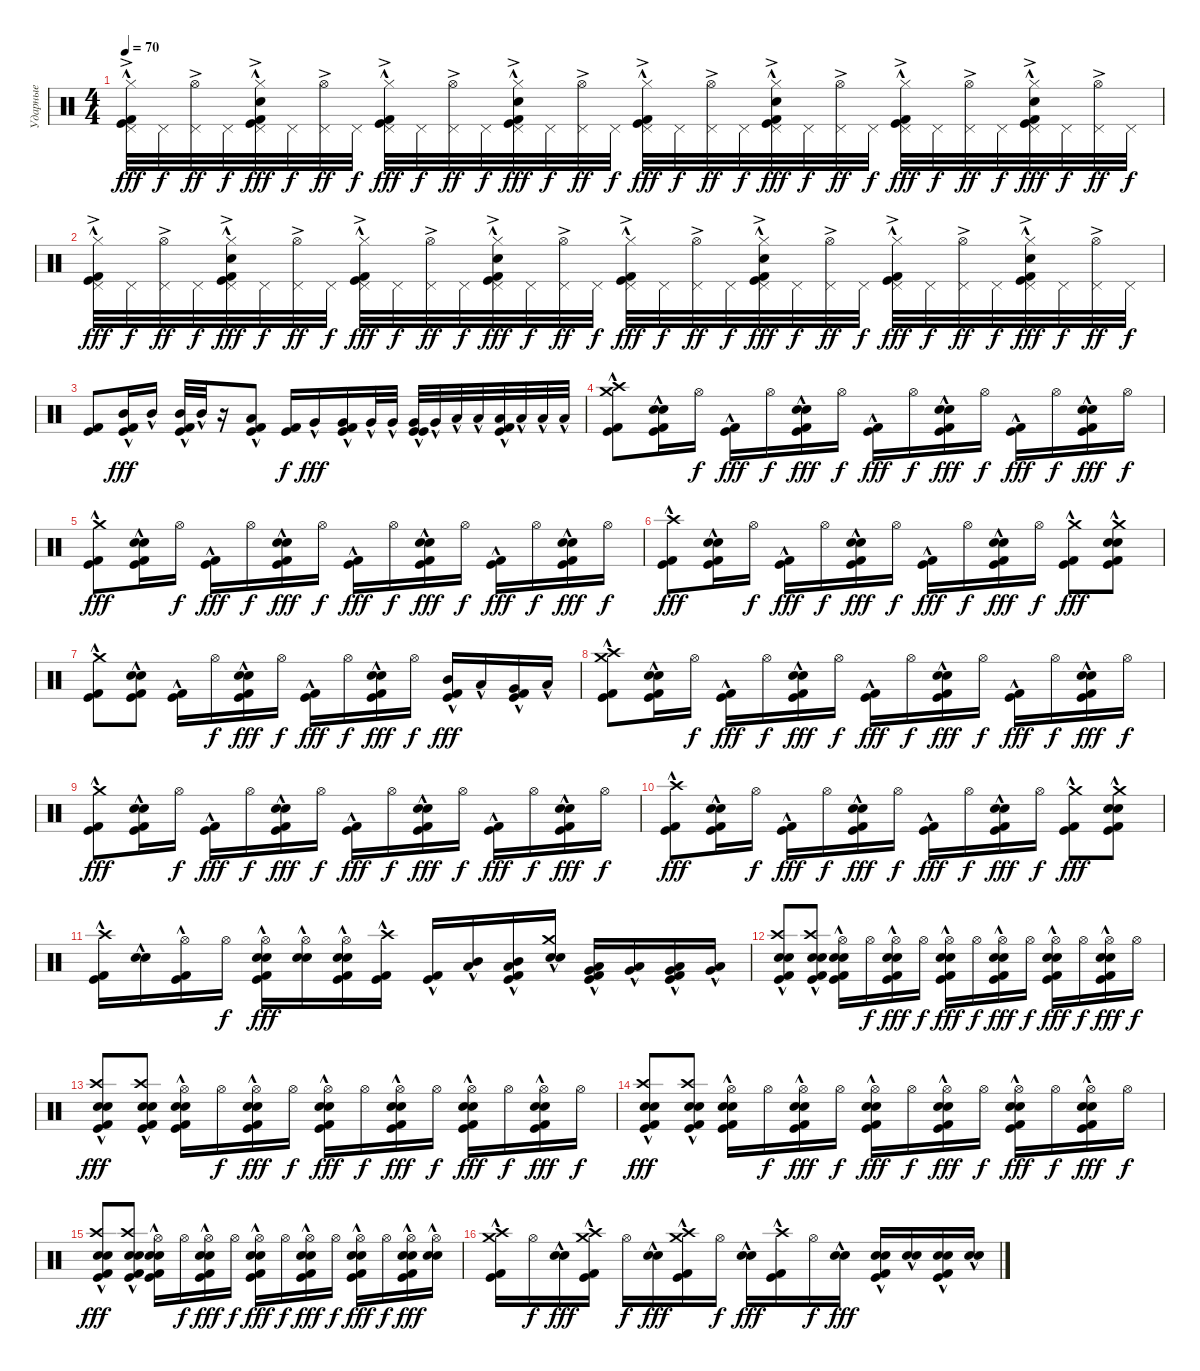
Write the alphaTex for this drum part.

\track ("Ударные" "Ударные") {instrument percussion}
\staff {score}
\articulation defaults
\ts (4 4)
\tempo 70
\clef neutral
\ks c
("Pedal Hi-Hat (hit)" "Kick (hit) 2"{hac} "Hi-Hat (closed)"{ac} "Kick (hit)"{hac}).32{dy fff} "Pedal Hi-Hat (hit)".32{dy f} ("Pedal Hi-Hat (hit)" "Hi-Hat (open)"{ac}).32{dy ff} "Pedal Hi-Hat (hit)".32{dy f} ("Pedal Hi-Hat (hit)" "Kick (hit) 2"{hac} "Hi-Hat (closed)"{ac} "Electric Snare (hit)"{hac} "Kick (hit)"{hac}).32{dy fff} "Pedal Hi-Hat (hit)".32{dy f} ("Pedal Hi-Hat (hit)" "Hi-Hat (open)"{ac}).32{dy ff} "Pedal Hi-Hat (hit)".32{dy f} ("Pedal Hi-Hat (hit)" "Kick (hit) 2"{hac} "Hi-Hat (closed)"{ac} "Kick (hit)"{hac}).32{dy fff} "Pedal Hi-Hat (hit)".32{dy f} ("Pedal Hi-Hat (hit)" "Hi-Hat (open)"{ac}).32{dy ff} "Pedal Hi-Hat (hit)".32{dy f} ("Pedal Hi-Hat (hit)" "Kick (hit) 2"{hac} "Hi-Hat (closed)"{ac} "Electric Snare (hit)"{hac} "Kick (hit)"{hac}).32{dy fff} "Pedal Hi-Hat (hit)".32{dy f} ("Pedal Hi-Hat (hit)" "Hi-Hat (open)"{ac}).32{dy ff} "Pedal Hi-Hat (hit)".32{dy f} ("Pedal Hi-Hat (hit)" "Kick (hit) 2"{hac} "Hi-Hat (closed)"{ac} "Kick (hit)"{hac}).32{dy fff} "Pedal Hi-Hat (hit)".32{dy f} ("Pedal Hi-Hat (hit)" "Hi-Hat (open)"{ac}).32{dy ff} "Pedal Hi-Hat (hit)".32{dy f} ("Pedal Hi-Hat (hit)" "Kick (hit) 2"{hac} "Hi-Hat (closed)"{ac} "Electric Snare (hit)"{hac} "Kick (hit)"{hac}).32{dy fff} "Pedal Hi-Hat (hit)".32{dy f} ("Pedal Hi-Hat (hit)" "Hi-Hat (open)"{ac}).32{dy ff} "Pedal Hi-Hat (hit)".32{dy f} ("Pedal Hi-Hat (hit)" "Kick (hit) 2"{hac} "Hi-Hat (closed)"{ac} "Kick (hit)"{hac}).32{dy fff} "Pedal Hi-Hat (hit)".32{dy f} ("Pedal Hi-Hat (hit)" "Hi-Hat (open)"{ac}).32{dy ff} "Pedal Hi-Hat (hit)".32{dy f} ("Pedal Hi-Hat (hit)" "Kick (hit) 2"{hac} "Hi-Hat (closed)"{ac} "Electric Snare (hit)"{hac} "Kick (hit)"{hac}).32{dy fff} "Pedal Hi-Hat (hit)".32{dy f} ("Pedal Hi-Hat (hit)" "Hi-Hat (open)"{ac}).32{dy ff} "Pedal Hi-Hat (hit)".32{dy f} |
("Pedal Hi-Hat (hit)" "Kick (hit) 2"{hac} "Hi-Hat (closed)"{ac} "Kick (hit)"{hac}).32{dy fff} "Pedal Hi-Hat (hit)".32{dy f} ("Pedal Hi-Hat (hit)" "Hi-Hat (open)"{ac}).32{dy ff} "Pedal Hi-Hat (hit)".32{dy f} ("Pedal Hi-Hat (hit)" "Kick (hit) 2"{hac} "Hi-Hat (closed)"{ac} "Electric Snare (hit)"{hac} "Kick (hit)"{hac}).32{dy fff} "Pedal Hi-Hat (hit)".32{dy f} ("Pedal Hi-Hat (hit)" "Hi-Hat (open)"{ac}).32{dy ff} "Pedal Hi-Hat (hit)".32{dy f} ("Pedal Hi-Hat (hit)" "Kick (hit) 2"{hac} "Hi-Hat (closed)"{ac} "Kick (hit)"{hac}).32{dy fff} "Pedal Hi-Hat (hit)".32{dy f} ("Pedal Hi-Hat (hit)" "Hi-Hat (open)"{ac}).32{dy ff} "Pedal Hi-Hat (hit)".32{dy f} ("Pedal Hi-Hat (hit)" "Kick (hit) 2"{hac} "Hi-Hat (closed)"{ac} "Electric Snare (hit)"{hac} "Kick (hit)"{hac}).32{dy fff} "Pedal Hi-Hat (hit)".32{dy f} ("Pedal Hi-Hat (hit)" "Hi-Hat (open)"{ac}).32{dy ff} "Pedal Hi-Hat (hit)".32{dy f} ("Pedal Hi-Hat (hit)" "Kick (hit) 2"{hac} "Hi-Hat (closed)"{ac} "Kick (hit)"{hac}).32{dy fff} "Pedal Hi-Hat (hit)".32{dy f} ("Pedal Hi-Hat (hit)" "Hi-Hat (open)"{ac}).32{dy ff} "Pedal Hi-Hat (hit)".32{dy f} ("Pedal Hi-Hat (hit)" "Kick (hit) 2"{hac} "Hi-Hat (closed)"{ac} "Electric Snare (hit)"{hac} "Kick (hit)"{hac}).32{dy fff} "Pedal Hi-Hat (hit)".32{dy f} ("Pedal Hi-Hat (hit)" "Hi-Hat (open)"{ac}).32{dy ff} "Pedal Hi-Hat (hit)".32{dy f} ("Pedal Hi-Hat (hit)" "Kick (hit) 2"{hac} "Hi-Hat (closed)"{ac} "Kick (hit)"{hac}).32{dy fff} "Pedal Hi-Hat (hit)".32{dy f} ("Pedal Hi-Hat (hit)" "Hi-Hat (open)"{ac}).32{dy ff} "Pedal Hi-Hat (hit)".32{dy f} ("Pedal Hi-Hat (hit)" "Kick (hit) 2"{hac} "Hi-Hat (closed)"{ac} "Electric Snare (hit)"{hac} "Kick (hit)"{hac}).32{dy fff} "Pedal Hi-Hat (hit)".32{dy f} ("Pedal Hi-Hat (hit)" "Hi-Hat (open)"{ac}).32{dy ff} "Pedal Hi-Hat (hit)".32{dy f} |
("Kick (hit)" "Kick (hit) 2").8 ("Kick (hit)" "Kick (hit) 2" "Mid Tom (hit)"{hac}).16{dy fff} "Mid Tom (hit)"{hac}.16 ("Kick (hit)" "Kick (hit) 2" "Mid Tom (hit)"{hac}).32 "Mid Tom (hit)"{hac}.32 r.16 ("Kick (hit)" "Kick (hit) 2" "Low Tom (hit)"{hac}).8 ("Kick (hit)" "Kick (hit) 2").16{dy f} "Very Low Tom (hit)"{hac}.16{dy fff} ("Kick (hit)" "Kick (hit) 2" "Very Low Tom (hit)"{hac}).16 "Very Low Tom (hit)"{hac}.32 "Very Low Tom (hit)"{hac}.32 ("Kick (hit)" "Kick (hit)" "Very Low Tom (hit)"{hac}).32 "Very Low Tom (hit)"{hac}.32 "Low Floor Tom (hit)"{hac}.32 "Low Floor Tom (hit)"{hac}.32 ("Kick (hit) 2" "Kick (hit)" "Low Floor Tom (hit)"{hac}).32 "Low Floor Tom (hit)"{hac}.32 "Low Floor Tom (hit)"{hac}.32 "Low Floor Tom (hit)"{hac}.32 |
("Crash high (hit)"{hac} "Kick (hit)"{hac} "Kick (hit) 2"{hac} "Crash medium (hit)"{hac}).8 ("Snare (hit) 2"{hac} "Electric Snare (hit)"{hac} "Kick (hit)"{hac} "Kick (hit) 2"{hac}).16 "Hi-Hat (open)".16{dy f} ("Kick (hit)"{hac} "Kick (hit) 2"{hac}).16{dy fff} "Hi-Hat (open)".16{dy f} ("Snare (hit) 2"{hac} "Electric Snare (hit)"{hac} "Kick (hit)"{hac} "Kick (hit) 2"{hac}).16{dy fff} "Hi-Hat (open)".16{dy f} ("Kick (hit)"{hac} "Kick (hit) 2"{hac}).16{dy fff} "Hi-Hat (open)".16{dy f} ("Snare (hit) 2"{hac} "Electric Snare (hit)"{hac} "Kick (hit)"{hac} "Kick (hit) 2"{hac}).16{dy fff} "Hi-Hat (open)".16{dy f} ("Kick (hit)"{hac} "Kick (hit) 2"{hac}).16{dy fff} "Hi-Hat (open)".16{dy f} ("Snare (hit) 2"{hac} "Electric Snare (hit)"{hac} "Kick (hit)"{hac} "Kick (hit) 2"{hac}).16{dy fff} "Hi-Hat (open)".16{dy f} |
("Crash medium (hit)"{hac} "Kick (hit)"{hac} "Kick (hit) 2"{hac}).8{dy fff} ("Snare (hit) 2"{hac} "Electric Snare (hit)"{hac} "Kick (hit)"{hac} "Kick (hit) 2"{hac}).16 "Hi-Hat (open)".16{dy f} ("Kick (hit)"{hac} "Kick (hit) 2"{hac}).16{dy fff} "Hi-Hat (open)".16{dy f} ("Snare (hit) 2"{hac} "Electric Snare (hit)"{hac} "Kick (hit)"{hac} "Kick (hit) 2"{hac}).16{dy fff} "Hi-Hat (open)".16{dy f} ("Kick (hit)"{hac} "Kick (hit) 2"{hac}).16{dy fff} "Hi-Hat (open)".16{dy f} ("Snare (hit) 2"{hac} "Electric Snare (hit)"{hac} "Kick (hit)"{hac} "Kick (hit) 2"{hac}).16{dy fff} "Hi-Hat (open)".16{dy f} ("Kick (hit)"{hac} "Kick (hit) 2"{hac}).16{dy fff} "Hi-Hat (open)".16{dy f} ("Snare (hit) 2"{hac} "Electric Snare (hit)"{hac} "Kick (hit)"{hac} "Kick (hit) 2"{hac}).16{dy fff} "Hi-Hat (open)".16{dy f} |
("Crash high (hit)"{hac} "Kick (hit)"{hac} "Kick (hit) 2"{hac}).8{dy fff} ("Snare (hit) 2"{hac} "Electric Snare (hit)"{hac} "Kick (hit)"{hac} "Kick (hit) 2"{hac}).16 "Hi-Hat (open)".16{dy f} ("Kick (hit)"{hac} "Kick (hit) 2"{hac}).16{dy fff} "Hi-Hat (open)".16{dy f} ("Snare (hit) 2"{hac} "Electric Snare (hit)"{hac} "Kick (hit)"{hac} "Kick (hit) 2"{hac}).16{dy fff} "Hi-Hat (open)".16{dy f} ("Kick (hit)"{hac} "Kick (hit) 2"{hac}).16{dy fff} "Hi-Hat (open)".16{dy f} ("Snare (hit) 2"{hac} "Electric Snare (hit)"{hac} "Kick (hit)"{hac} "Kick (hit) 2"{hac}).16{dy fff} "Hi-Hat (open)".16{dy f} ("Crash medium (hit)"{hac} "Kick (hit)"{hac} "Kick (hit) 2"{hac}).8{dy fff} ("Crash medium (hit)"{hac} "Snare (hit) 2"{hac} "Electric Snare (hit)"{hac} "Kick (hit)"{hac} "Kick (hit) 2"{hac}).8 |
("Crash medium (hit)"{hac} "Kick (hit)"{hac} "Kick (hit) 2"{hac}).8 ("Snare (hit) 2"{hac} "Electric Snare (hit)"{hac} "Kick (hit)"{hac} "Kick (hit) 2"{hac}).8 ("Kick (hit)"{hac} "Kick (hit) 2"{hac}).16 "Hi-Hat (open)".16{dy f} ("Snare (hit) 2"{hac} "Electric Snare (hit)"{hac} "Kick (hit)"{hac} "Kick (hit) 2"{hac}).16{dy fff} "Hi-Hat (open)".16{dy f} ("Kick (hit)"{hac} "Kick (hit) 2"{hac}).16{dy fff} "Hi-Hat (open)".16{dy f} ("Snare (hit) 2"{hac} "Electric Snare (hit)"{hac} "Kick (hit)"{hac} "Kick (hit) 2"{hac}).16{dy fff} "Hi-Hat (open)".16{dy f} ("Mid Tom (hit)"{hac} "Kick (hit)"{hac} "Kick (hit) 2"{hac}).16{dy fff} "Low Tom (hit)"{hac}.16 ("Very Low Tom (hit)"{hac} "Kick (hit)"{hac} "Kick (hit) 2"{hac}).16 "Low Floor Tom (hit)"{hac}.16 |
("Crash high (hit)"{hac} "Kick (hit)"{hac} "Kick (hit) 2"{hac} "Crash medium (hit)"{hac}).8 ("Snare (hit) 2"{hac} "Electric Snare (hit)"{hac} "Kick (hit)"{hac} "Kick (hit) 2"{hac}).16 "Hi-Hat (open)".16{dy f} ("Kick (hit)"{hac} "Kick (hit) 2"{hac}).16{dy fff} "Hi-Hat (open)".16{dy f} ("Snare (hit) 2"{hac} "Electric Snare (hit)"{hac} "Kick (hit)"{hac} "Kick (hit) 2"{hac}).16{dy fff} "Hi-Hat (open)".16{dy f} ("Kick (hit)"{hac} "Kick (hit) 2"{hac}).16{dy fff} "Hi-Hat (open)".16{dy f} ("Snare (hit) 2"{hac} "Electric Snare (hit)"{hac} "Kick (hit)"{hac} "Kick (hit) 2"{hac}).16{dy fff} "Hi-Hat (open)".16{dy f} ("Kick (hit)"{hac} "Kick (hit) 2"{hac}).16{dy fff} "Hi-Hat (open)".16{dy f} ("Snare (hit) 2"{hac} "Electric Snare (hit)"{hac} "Kick (hit)"{hac} "Kick (hit) 2"{hac}).16{dy fff} "Hi-Hat (open)".16{dy f} |
("Crash medium (hit)"{hac} "Kick (hit)"{hac} "Kick (hit) 2"{hac}).8{dy fff} ("Snare (hit) 2"{hac} "Electric Snare (hit)"{hac} "Kick (hit)"{hac} "Kick (hit) 2"{hac}).16 "Hi-Hat (open)".16{dy f} ("Kick (hit)"{hac} "Kick (hit) 2"{hac}).16{dy fff} "Hi-Hat (open)".16{dy f} ("Snare (hit) 2"{hac} "Electric Snare (hit)"{hac} "Kick (hit)"{hac} "Kick (hit) 2"{hac}).16{dy fff} "Hi-Hat (open)".16{dy f} ("Kick (hit)"{hac} "Kick (hit) 2"{hac}).16{dy fff} "Hi-Hat (open)".16{dy f} ("Snare (hit) 2"{hac} "Electric Snare (hit)"{hac} "Kick (hit)"{hac} "Kick (hit) 2"{hac}).16{dy fff} "Hi-Hat (open)".16{dy f} ("Kick (hit)"{hac} "Kick (hit) 2"{hac}).16{dy fff} "Hi-Hat (open)".16{dy f} ("Snare (hit) 2"{hac} "Electric Snare (hit)"{hac} "Kick (hit)"{hac} "Kick (hit) 2"{hac}).16{dy fff} "Hi-Hat (open)".16{dy f} |
("Crash high (hit)"{hac} "Kick (hit)"{hac} "Kick (hit) 2"{hac}).8{dy fff} ("Snare (hit) 2"{hac} "Electric Snare (hit)"{hac} "Kick (hit)"{hac} "Kick (hit) 2"{hac}).16 "Hi-Hat (open)".16{dy f} ("Kick (hit)"{hac} "Kick (hit) 2"{hac}).16{dy fff} "Hi-Hat (open)".16{dy f} ("Snare (hit) 2"{hac} "Electric Snare (hit)"{hac} "Kick (hit)"{hac} "Kick (hit) 2"{hac}).16{dy fff} "Hi-Hat (open)".16{dy f} ("Kick (hit)"{hac} "Kick (hit) 2"{hac}).16{dy fff} "Hi-Hat (open)".16{dy f} ("Snare (hit) 2"{hac} "Electric Snare (hit)"{hac} "Kick (hit)"{hac} "Kick (hit) 2"{hac}).16{dy fff} "Hi-Hat (open)".16{dy f} ("Crash medium (hit)"{hac} "Kick (hit)"{hac} "Kick (hit) 2"{hac}).8{dy fff} ("Crash medium (hit)"{hac} "Snare (hit) 2"{hac} "Electric Snare (hit)"{hac} "Kick (hit)"{hac} "Kick (hit) 2"{hac}).8 |
("Crash high (hit)"{hac} "Kick (hit) 2"{hac} "Kick (hit)"{hac}).16 ("Snare (hit) 2"{hac} "Electric Snare (hit)"{hac}).16 ("Hi-Hat (open)" "Kick (hit) 2"{hac} "Kick (hit)"{hac}).16 "Hi-Hat (open)".16{dy f} ("Hi-Hat (open)" "Snare (hit) 2"{hac} "Electric Snare (hit)"{hac} "Kick (hit) 2"{hac} "Kick (hit)"{hac}).16{dy fff} ("Hi-Hat (open)" "Snare (hit) 2"{hac} "Electric Snare (hit)"{hac}).16 ("Hi-Hat (open)" "Snare (hit) 2"{hac} "Electric Snare (hit)"{hac} "Kick (hit) 2"{hac} "Kick (hit)"{hac}).16 ("Crash high (hit)"{hac} "Kick (hit)"{hac} "Kick (hit) 2"{hac}).16 ("Kick (hit) 2"{hac} "Kick (hit)"{hac}).16 ("Mid Tom (hit)"{hac} "Low Tom (hit)"{hac}).16 ("Mid Tom (hit)"{hac} "Low Tom (hit)"{hac} "Kick (hit) 2"{hac} "Kick (hit)"{hac}).16 ("Crash medium (hit)"{hac} "Electric Snare (hit)"{hac} "Snare (hit) 2"{hac}).16 ("Very Low Tom (hit)"{hac} "Low Floor Tom (hit)"{hac} "Kick (hit) 2"{hac} "Kick (hit)"{hac}).16 ("Very Low Tom (hit)"{hac} "Low Floor Tom (hit)"{hac}).16 ("Very Low Tom (hit)"{hac} "Low Floor Tom (hit)"{hac} "Kick (hit) 2"{hac} "Kick (hit)"{hac}).16 ("Very Low Tom (hit)"{hac} "Low Floor Tom (hit)"{hac}).16 |
("Crash high (hit)"{hac} "Kick (hit) 2"{hac} "Snare (hit) 2"{hac} "Kick (hit)"{hac} "Electric Snare (hit)"{hac}).8 ("Crash high (hit)"{hac} "Kick (hit) 2"{hac} "Snare (hit) 2"{hac} "Kick (hit)"{hac} "Electric Snare (hit)").8 ("Hi-Hat (open)" "Kick (hit) 2"{hac} "Snare (hit) 2"{hac} "Kick (hit)"{hac} "Electric Snare (hit)"{hac}).16 "Hi-Hat (open)".16{dy f} ("Hi-Hat (open)" "Kick (hit) 2"{hac} "Snare (hit) 2"{hac} "Kick (hit)"{hac} "Electric Snare (hit)"{hac}).16{dy fff} "Hi-Hat (open)".16{dy f} ("Hi-Hat (open)" "Kick (hit) 2"{hac} "Snare (hit) 2"{hac} "Kick (hit)"{hac} "Electric Snare (hit)"{hac}).16{dy fff} "Hi-Hat (open)".16{dy f} ("Hi-Hat (open)" "Kick (hit) 2"{hac} "Snare (hit) 2"{hac} "Kick (hit)"{hac} "Electric Snare (hit)"{hac}).16{dy fff} "Hi-Hat (open)".16{dy f} ("Hi-Hat (open)" "Kick (hit) 2"{hac} "Snare (hit) 2"{hac} "Kick (hit)"{hac} "Electric Snare (hit)"{hac}).16{dy fff} "Hi-Hat (open)".16{dy f} ("Hi-Hat (open)" "Kick (hit) 2"{hac} "Snare (hit) 2"{hac} "Kick (hit)"{hac} "Electric Snare (hit)"{hac}).16{dy fff} "Hi-Hat (open)".16{dy f} |
("Crash high (hit)"{hac} "Kick (hit) 2"{hac} "Snare (hit) 2"{hac} "Kick (hit)"{hac} "Electric Snare (hit)"{hac}).8{dy fff} ("Crash high (hit)"{hac} "Kick (hit) 2"{hac} "Snare (hit) 2"{hac} "Kick (hit)"{hac} "Electric Snare (hit)"{hac}).8 ("Hi-Hat (open)" "Kick (hit) 2"{hac} "Snare (hit) 2"{hac} "Kick (hit)"{hac} "Electric Snare (hit)"{hac}).16 "Hi-Hat (open)".16{dy f} ("Hi-Hat (open)" "Kick (hit) 2"{hac} "Snare (hit) 2"{hac} "Kick (hit)"{hac} "Electric Snare (hit)"{hac}).16{dy fff} "Hi-Hat (open)".16{dy f} ("Hi-Hat (open)" "Kick (hit) 2"{hac} "Snare (hit) 2"{hac} "Kick (hit)"{hac} "Electric Snare (hit)"{hac}).16{dy fff} "Hi-Hat (open)".16{dy f} ("Hi-Hat (open)" "Kick (hit) 2"{hac} "Snare (hit) 2"{hac} "Kick (hit)"{hac} "Electric Snare (hit)"{hac}).16{dy fff} "Hi-Hat (open)".16{dy f} ("Hi-Hat (open)" "Kick (hit) 2"{hac} "Snare (hit) 2"{hac} "Kick (hit)"{hac} "Electric Snare (hit)"{hac}).16{dy fff} "Hi-Hat (open)".16{dy f} ("Hi-Hat (open)" "Kick (hit) 2"{hac} "Snare (hit) 2"{hac} "Kick (hit)"{hac} "Electric Snare (hit)"{hac}).16{dy fff} "Hi-Hat (open)".16{dy f} |
("Crash high (hit)"{hac} "Kick (hit) 2"{hac} "Snare (hit) 2"{hac} "Kick (hit)"{hac} "Electric Snare (hit)"{hac}).8{dy fff} ("Crash high (hit)"{hac} "Kick (hit) 2"{hac} "Snare (hit) 2"{hac} "Kick (hit)"{hac} "Electric Snare (hit)"{hac}).8 ("Hi-Hat (open)" "Kick (hit) 2"{hac} "Snare (hit) 2"{hac} "Kick (hit)"{hac} "Electric Snare (hit)"{hac}).16 "Hi-Hat (open)".16{dy f} ("Hi-Hat (open)" "Kick (hit) 2"{hac} "Snare (hit) 2"{hac} "Kick (hit)"{hac} "Electric Snare (hit)"{hac}).16{dy fff} "Hi-Hat (open)".16{dy f} ("Hi-Hat (open)" "Kick (hit) 2"{hac} "Snare (hit) 2"{hac} "Kick (hit)"{hac} "Electric Snare (hit)"{hac}).16{dy fff} "Hi-Hat (open)".16{dy f} ("Hi-Hat (open)" "Kick (hit) 2"{hac} "Snare (hit) 2"{hac} "Kick (hit)"{hac} "Electric Snare (hit)"{hac}).16{dy fff} "Hi-Hat (open)".16{dy f} ("Hi-Hat (open)" "Kick (hit) 2"{hac} "Snare (hit) 2"{hac} "Kick (hit)"{hac} "Electric Snare (hit)"{hac}).16{dy fff} "Hi-Hat (open)".16{dy f} ("Hi-Hat (open)" "Kick (hit) 2"{hac} "Snare (hit) 2"{hac} "Kick (hit)"{hac} "Electric Snare (hit)"{hac}).16{dy fff} "Hi-Hat (open)".16{dy f} |
("Crash high (hit)"{hac} "Kick (hit) 2"{hac} "Snare (hit) 2"{hac} "Kick (hit)"{hac} "Electric Snare (hit)"{hac}).8{dy fff} ("Crash high (hit)"{hac} "Kick (hit) 2"{hac} "Snare (hit) 2"{hac} "Kick (hit)"{hac} "Electric Snare (hit)"{hac}).8 ("Hi-Hat (open)" "Kick (hit) 2"{hac} "Snare (hit) 2"{hac} "Kick (hit)"{hac} "Electric Snare (hit)"{hac}).16 "Hi-Hat (open)".16{dy f} ("Hi-Hat (open)" "Kick (hit) 2"{hac} "Snare (hit) 2"{hac} "Kick (hit)"{hac} "Electric Snare (hit)"{hac}).16{dy fff} "Hi-Hat (open)".16{dy f} ("Hi-Hat (open)" "Kick (hit) 2"{hac} "Snare (hit) 2"{hac} "Kick (hit)"{hac} "Electric Snare (hit)"{hac}).16{dy fff} "Hi-Hat (open)".16{dy f} ("Hi-Hat (open)" "Kick (hit) 2"{hac} "Snare (hit) 2"{hac} "Kick (hit)"{hac} "Electric Snare (hit)"{hac}).16{dy fff} "Hi-Hat (open)".16{dy f} ("Hi-Hat (open)" "Kick (hit) 2"{hac} "Snare (hit) 2"{hac} "Kick (hit)"{hac} "Electric Snare (hit)"{hac}).16{dy fff} "Hi-Hat (open)".16{dy f} ("Hi-Hat (open)" "Kick (hit) 2"{hac} "Snare (hit) 2"{hac} "Kick (hit)"{hac} "Electric Snare (hit)"{hac}).16{dy fff} ("Hi-Hat (open)" "Snare (hit) 2"{hac} "Electric Snare (hit)"{hac}).16 |
("Kick (hit)"{hac} "Crash high (hit)"{hac} "Kick (hit) 2"{hac} "Crash medium (hit)"{hac}).16 "Hi-Hat (open)".16{dy f} ("Snare (hit) 2"{hac} "Electric Snare (hit)"{hac}).16{dy fff} ("Kick (hit)"{hac} "Crash high (hit)"{hac} "Kick (hit) 2"{hac} "Crash medium (hit)"{hac}).16 "Hi-Hat (open)".16{dy f} ("Snare (hit) 2"{hac} "Electric Snare (hit)"{hac}).16{dy fff} ("Kick (hit)"{hac} "Crash high (hit)"{hac} "Kick (hit) 2"{hac} "Crash medium (hit)"{hac}).16 "Hi-Hat (open)".16{dy f} ("Snare (hit) 2"{hac} "Electric Snare (hit)"{hac}).16{dy fff} ("Kick (hit)"{hac} "Crash high (hit)"{hac} "Kick (hit) 2"{hac}).16 "Hi-Hat (open)".16{dy f} ("Snare (hit) 2"{hac} "Electric Snare (hit)"{hac}).16{dy fff} ("Snare (hit) 2"{hac} "Kick (hit)"{hac} "Electric Snare (hit)"{hac} "Kick (hit) 2"{hac}).16 ("Snare (hit) 2"{hac} "Electric Snare (hit)"{hac}).16 ("Snare (hit) 2"{hac} "Kick (hit)"{hac} "Electric Snare (hit)"{hac} "Kick (hit) 2"{hac}).16 ("Snare (hit) 2"{hac} "Electric Snare (hit)"{hac}).16
